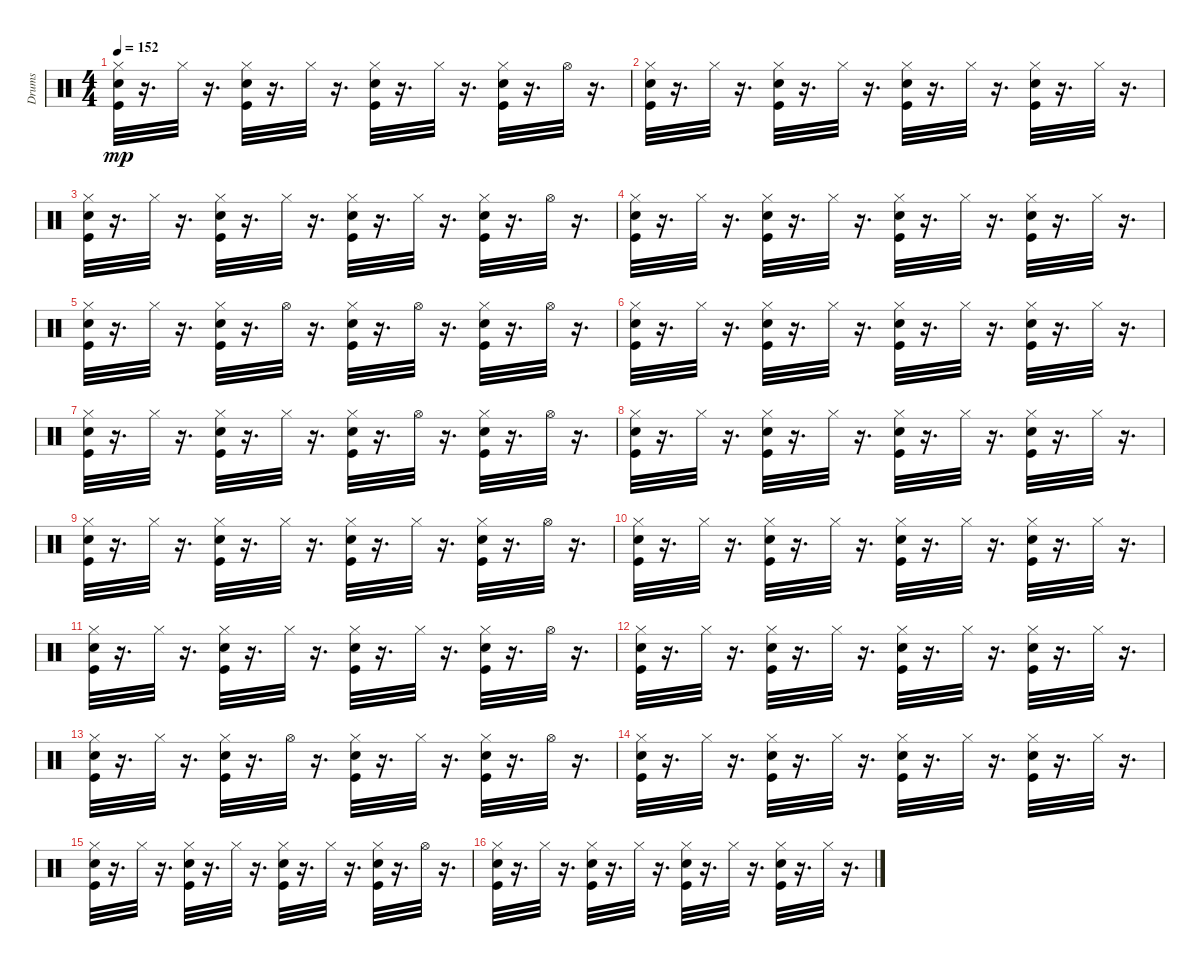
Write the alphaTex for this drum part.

\track ("Drums   " "Drums   ") {instrument percussion}
\staff {score}
\articulation defaults
\ts (4 4)
\tempo 152
\clef neutral
\ks c
("Snare (hit) 2" "Hi-Hat (closed)" "Kick (hit)").32{dy mp} r.16{d} "Hi-Hat (closed)".32 r.16{d} ("Snare (hit) 2" "Hi-Hat (closed)" "Kick (hit)").32 r.16{d} "Hi-Hat (closed)".32 r.16{d} ("Snare (hit) 2" "Hi-Hat (closed)" "Kick (hit)").32 r.16{d} "Hi-Hat (closed)".32 r.16{d} ("Snare (hit) 2" "Hi-Hat (closed)" "Kick (hit)").32 r.16{d} "Hi-Hat (open)".32 r.16{d} |
("Snare (hit) 2" "Hi-Hat (closed)" "Kick (hit)").32 r.16{d} "Hi-Hat (closed)".32 r.16{d} ("Snare (hit) 2" "Hi-Hat (closed)" "Kick (hit)").32 r.16{d} "Hi-Hat (closed)".32 r.16{d} ("Snare (hit) 2" "Hi-Hat (closed)" "Kick (hit)").32 r.16{d} "Hi-Hat (closed)".32 r.16{d} ("Snare (hit) 2" "Hi-Hat (closed)" "Kick (hit)").32 r.16{d} "Hi-Hat (closed)".32 r.16{d} |
("Snare (hit) 2" "Hi-Hat (closed)" "Kick (hit)").32 r.16{d} "Hi-Hat (closed)".32 r.16{d} ("Snare (hit) 2" "Hi-Hat (closed)" "Kick (hit)").32 r.16{d} "Hi-Hat (closed)".32 r.16{d} ("Snare (hit) 2" "Hi-Hat (closed)" "Kick (hit)").32 r.16{d} "Hi-Hat (closed)".32 r.16{d} ("Snare (hit) 2" "Hi-Hat (closed)" "Kick (hit)").32 r.16{d} "Hi-Hat (open)".32 r.16{d} |
("Snare (hit) 2" "Hi-Hat (closed)" "Kick (hit)").32 r.16{d} "Hi-Hat (closed)".32 r.16{d} ("Snare (hit) 2" "Hi-Hat (closed)" "Kick (hit)").32 r.16{d} "Hi-Hat (closed)".32 r.16{d} ("Snare (hit) 2" "Hi-Hat (closed)" "Kick (hit)").32 r.16{d} "Hi-Hat (closed)".32 r.16{d} ("Snare (hit) 2" "Hi-Hat (closed)" "Kick (hit)").32 r.16{d} "Hi-Hat (closed)".32 r.16{d} |
("Snare (hit) 2" "Hi-Hat (closed)" "Kick (hit)").32 r.16{d} "Hi-Hat (closed)".32 r.16{d} ("Snare (hit) 2" "Hi-Hat (closed)" "Kick (hit)").32 r.16{d} "Hi-Hat (open)".32 r.16{d} ("Snare (hit) 2" "Hi-Hat (closed)" "Kick (hit)").32 r.16{d} "Hi-Hat (open)".32 r.16{d} ("Snare (hit) 2" "Hi-Hat (closed)" "Kick (hit)").32 r.16{d} "Hi-Hat (open)".32 r.16{d} |
("Snare (hit) 2" "Hi-Hat (closed)" "Kick (hit)").32 r.16{d} "Hi-Hat (closed)".32 r.16{d} ("Snare (hit) 2" "Hi-Hat (closed)" "Kick (hit)").32 r.16{d} "Hi-Hat (closed)".32 r.16{d} ("Snare (hit) 2" "Hi-Hat (closed)" "Kick (hit)").32 r.16{d} "Hi-Hat (closed)".32 r.16{d} ("Snare (hit) 2" "Hi-Hat (closed)" "Kick (hit)").32 r.16{d} "Hi-Hat (closed)".32 r.16{d} |
("Snare (hit) 2" "Hi-Hat (closed)" "Kick (hit)").32 r.16{d} "Hi-Hat (closed)".32 r.16{d} ("Snare (hit) 2" "Hi-Hat (closed)" "Kick (hit)").32 r.16{d} "Hi-Hat (closed)".32 r.16{d} ("Snare (hit) 2" "Hi-Hat (closed)" "Kick (hit)").32 r.16{d} "Hi-Hat (open)".32 r.16{d} ("Snare (hit) 2" "Hi-Hat (closed)" "Kick (hit)").32 r.16{d} "Hi-Hat (open)".32 r.16{d} |
("Snare (hit) 2" "Hi-Hat (closed)" "Kick (hit)").32 r.16{d} "Hi-Hat (closed)".32 r.16{d} ("Snare (hit) 2" "Hi-Hat (closed)" "Kick (hit)").32 r.16{d} "Hi-Hat (closed)".32 r.16{d} ("Snare (hit) 2" "Hi-Hat (closed)" "Kick (hit)").32 r.16{d} "Hi-Hat (closed)".32 r.16{d} ("Snare (hit) 2" "Hi-Hat (closed)" "Kick (hit)").32 r.16{d} "Hi-Hat (closed)".32 r.16{d} |
("Snare (hit) 2" "Hi-Hat (closed)" "Kick (hit)").32 r.16{d} "Hi-Hat (closed)".32 r.16{d} ("Snare (hit) 2" "Hi-Hat (closed)" "Kick (hit)").32 r.16{d} "Hi-Hat (closed)".32 r.16{d} ("Snare (hit) 2" "Hi-Hat (closed)" "Kick (hit)").32 r.16{d} "Hi-Hat (closed)".32 r.16{d} ("Snare (hit) 2" "Hi-Hat (closed)" "Kick (hit)").32 r.16{d} "Hi-Hat (open)".32 r.16{d} |
("Snare (hit) 2" "Hi-Hat (closed)" "Kick (hit)").32 r.16{d} "Hi-Hat (closed)".32 r.16{d} ("Snare (hit) 2" "Hi-Hat (closed)" "Kick (hit)").32 r.16{d} "Hi-Hat (closed)".32 r.16{d} ("Snare (hit) 2" "Hi-Hat (closed)" "Kick (hit)").32 r.16{d} "Hi-Hat (closed)".32 r.16{d} ("Snare (hit) 2" "Hi-Hat (closed)" "Kick (hit)").32 r.16{d} "Hi-Hat (closed)".32 r.16{d} |
("Snare (hit) 2" "Hi-Hat (closed)" "Kick (hit)").32 r.16{d} "Hi-Hat (closed)".32 r.16{d} ("Snare (hit) 2" "Hi-Hat (closed)" "Kick (hit)").32 r.16{d} "Hi-Hat (closed)".32 r.16{d} ("Snare (hit) 2" "Hi-Hat (closed)" "Kick (hit)").32 r.16{d} "Hi-Hat (closed)".32 r.16{d} ("Snare (hit) 2" "Hi-Hat (closed)" "Kick (hit)").32 r.16{d} "Hi-Hat (open)".32 r.16{d} |
("Snare (hit) 2" "Hi-Hat (closed)" "Kick (hit)").32 r.16{d} "Hi-Hat (closed)".32 r.16{d} ("Snare (hit) 2" "Hi-Hat (closed)" "Kick (hit)").32 r.16{d} "Hi-Hat (closed)".32 r.16{d} ("Snare (hit) 2" "Hi-Hat (closed)" "Kick (hit)").32 r.16{d} "Hi-Hat (closed)".32 r.16{d} ("Snare (hit) 2" "Hi-Hat (closed)" "Kick (hit)").32 r.16{d} "Hi-Hat (closed)".32 r.16{d} |
("Snare (hit) 2" "Hi-Hat (closed)" "Kick (hit)").32 r.16{d} "Hi-Hat (closed)".32 r.16{d} ("Snare (hit) 2" "Hi-Hat (closed)" "Kick (hit)").32 r.16{d} "Hi-Hat (open)".32 r.16{d} ("Snare (hit) 2" "Hi-Hat (closed)" "Kick (hit)").32 r.16{d} "Hi-Hat (closed)".32 r.16{d} ("Snare (hit) 2" "Hi-Hat (closed)" "Kick (hit)").32 r.16{d} "Hi-Hat (open)".32 r.16{d} |
("Snare (hit) 2" "Hi-Hat (closed)" "Kick (hit)").32 r.16{d} "Hi-Hat (closed)".32 r.16{d} ("Snare (hit) 2" "Hi-Hat (closed)" "Kick (hit)").32 r.16{d} "Hi-Hat (closed)".32 r.16{d} ("Snare (hit) 2" "Hi-Hat (closed)" "Kick (hit)").32 r.16{d} "Hi-Hat (closed)".32 r.16{d} ("Snare (hit) 2" "Hi-Hat (closed)" "Kick (hit)").32 r.16{d} "Hi-Hat (closed)".32 r.16{d} |
("Snare (hit) 2" "Hi-Hat (closed)" "Kick (hit)").32 r.16{d} "Hi-Hat (closed)".32 r.16{d} ("Snare (hit) 2" "Hi-Hat (closed)" "Kick (hit)").32 r.16{d} "Hi-Hat (closed)".32 r.16{d} ("Snare (hit) 2" "Hi-Hat (closed)" "Kick (hit)").32 r.16{d} "Hi-Hat (closed)".32 r.16{d} ("Snare (hit) 2" "Hi-Hat (closed)" "Kick (hit)").32 r.16{d} "Hi-Hat (open)".32 r.16{d} |
("Snare (hit) 2" "Hi-Hat (closed)" "Kick (hit)").32 r.16{d} "Hi-Hat (closed)".32 r.16{d} ("Snare (hit) 2" "Hi-Hat (closed)" "Kick (hit)").32 r.16{d} "Hi-Hat (closed)".32 r.16{d} ("Snare (hit) 2" "Hi-Hat (closed)" "Kick (hit)").32 r.16{d} "Hi-Hat (closed)".32 r.16{d} ("Snare (hit) 2" "Hi-Hat (closed)" "Kick (hit)").32 r.16{d} "Hi-Hat (closed)".32 r.16{d}
